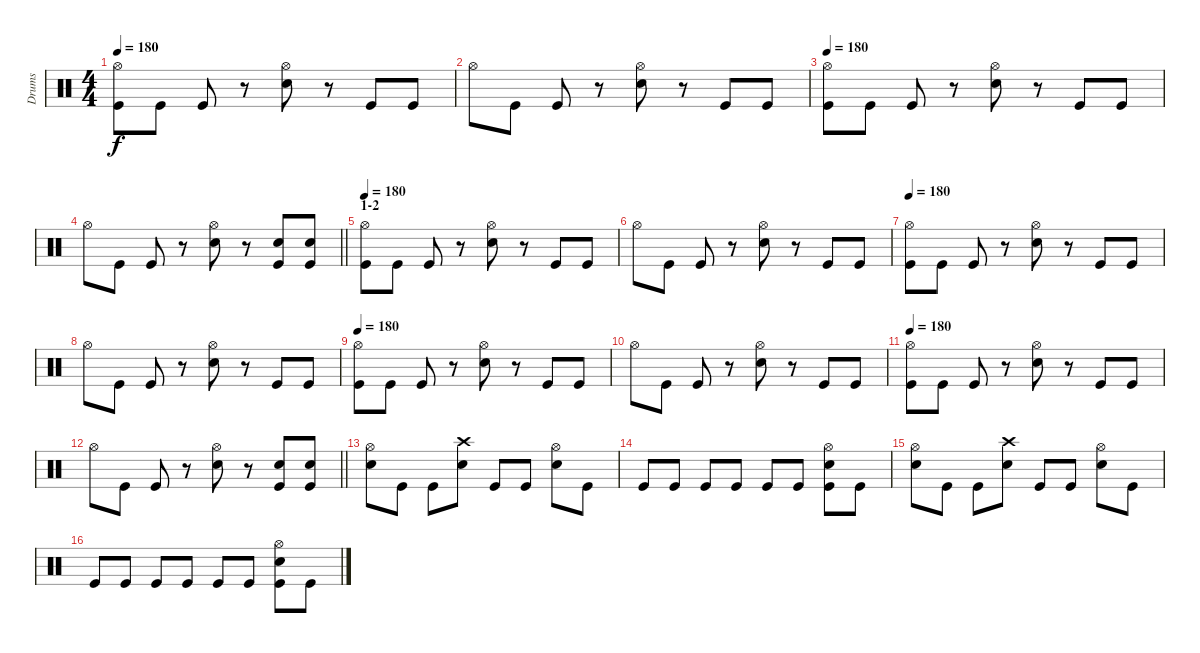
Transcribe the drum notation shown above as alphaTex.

\track ("Drums" "Drums") {instrument percussion}
\staff {score}
\articulation defaults
\ts (4 4)
\tempo 180
\clef neutral
\ks c
("Hi-Hat (open)" "Kick (hit)").8{dy f} "Kick (hit)".8 "Kick (hit)".8 r.8 ("Hi-Hat (open)" "Electric Snare (hit)").8 r.8 "Kick (hit)".8 "Kick (hit)".8 |
"Hi-Hat (open)".8 "Kick (hit)".8 "Kick (hit)".8 r.8 ("Hi-Hat (open)" "Electric Snare (hit)").8 r.8 "Kick (hit)".8 "Kick (hit)".8 |
\tempo 180
("Hi-Hat (open)" "Kick (hit)").8 "Kick (hit)".8 "Kick (hit)".8 r.8 ("Hi-Hat (open)" "Electric Snare (hit)").8 r.8 "Kick (hit)".8 "Kick (hit)".8 |
\barLineRight lightlight "Hi-Hat (open)".8 "Kick (hit)".8 "Kick (hit)".8
r.8 ("Hi-Hat (open)" "Electric Snare (hit)").8 r.8 ("Electric Snare (hit)" "Kick (hit)").8 ("Electric Snare (hit)" "Kick (hit)").8 |
\section ("" "1-2")
\tempo 180
("Hi-Hat (open)" "Kick (hit)").8 "Kick (hit)".8 "Kick (hit)".8 r.8 ("Hi-Hat (open)" "Electric Snare (hit)").8 r.8 "Kick (hit)".8 "Kick (hit)".8 |
"Hi-Hat (open)".8 "Kick (hit)".8 "Kick (hit)".8 r.8 ("Hi-Hat (open)" "Electric Snare (hit)").8 r.8 "Kick (hit)".8 "Kick (hit)".8 |
\tempo 180
("Hi-Hat (open)" "Kick (hit)").8 "Kick (hit)".8 "Kick (hit)".8 r.8 ("Hi-Hat (open)" "Electric Snare (hit)").8 r.8 "Kick (hit)".8 "Kick (hit)".8 |
"Hi-Hat (open)".8 "Kick (hit)".8 "Kick (hit)".8 r.8 ("Hi-Hat (open)" "Electric Snare (hit)").8 r.8 "Kick (hit)".8 "Kick (hit)".8 |
\tempo 180
("Hi-Hat (open)" "Kick (hit)").8 "Kick (hit)".8 "Kick (hit)".8 r.8 ("Hi-Hat (open)" "Electric Snare (hit)").8 r.8 "Kick (hit)".8 "Kick (hit)".8 |
"Hi-Hat (open)".8 "Kick (hit)".8 "Kick (hit)".8 r.8 ("Hi-Hat (open)" "Electric Snare (hit)").8 r.8 "Kick (hit)".8 "Kick (hit)".8 |
\tempo 180
("Hi-Hat (open)" "Kick (hit)").8 "Kick (hit)".8 "Kick (hit)".8 r.8 ("Hi-Hat (open)" "Electric Snare (hit)").8 r.8 "Kick (hit)".8 "Kick (hit)".8 |
\barLineRight lightlight "Hi-Hat (open)".8 "Kick (hit)".8 "Kick (hit)".8
r.8 ("Hi-Hat (open)" "Electric Snare (hit)").8 r.8 ("Electric Snare (hit)" "Kick (hit)").8 ("Electric Snare (hit)" "Kick (hit)").8 |
\section ("" "")
("Hi-Hat (open)" "Electric Snare (hit)").8 "Kick (hit)".8 "Kick (hit)".8 ("Crash high (hit)" "Electric Snare (hit)").8 "Kick (hit)".8 "Kick (hit)".8 ("Hi-Hat (open)" "Electric Snare (hit)").8 "Kick (hit)".8 |
"Kick (hit)".8 "Kick (hit)".8 "Kick (hit)".8 "Kick (hit)".8 "Kick (hit)".8 "Kick (hit)".8 ("Hi-Hat (open)" "Electric Snare (hit)" "Kick (hit)").8 "Kick (hit)".8 |
("Hi-Hat (open)" "Electric Snare (hit)").8 "Kick (hit)".8 "Kick (hit)".8 ("Crash high (hit)" "Electric Snare (hit)").8 "Kick (hit)".8 "Kick (hit)".8 ("Hi-Hat (open)" "Electric Snare (hit)").8 "Kick (hit)".8 |
"Kick (hit)".8 "Kick (hit)".8 "Kick (hit)".8 "Kick (hit)".8 "Kick (hit)".8 "Kick (hit)".8 ("Hi-Hat (open)" "Electric Snare (hit)" "Kick (hit)").8 "Kick (hit)".8
